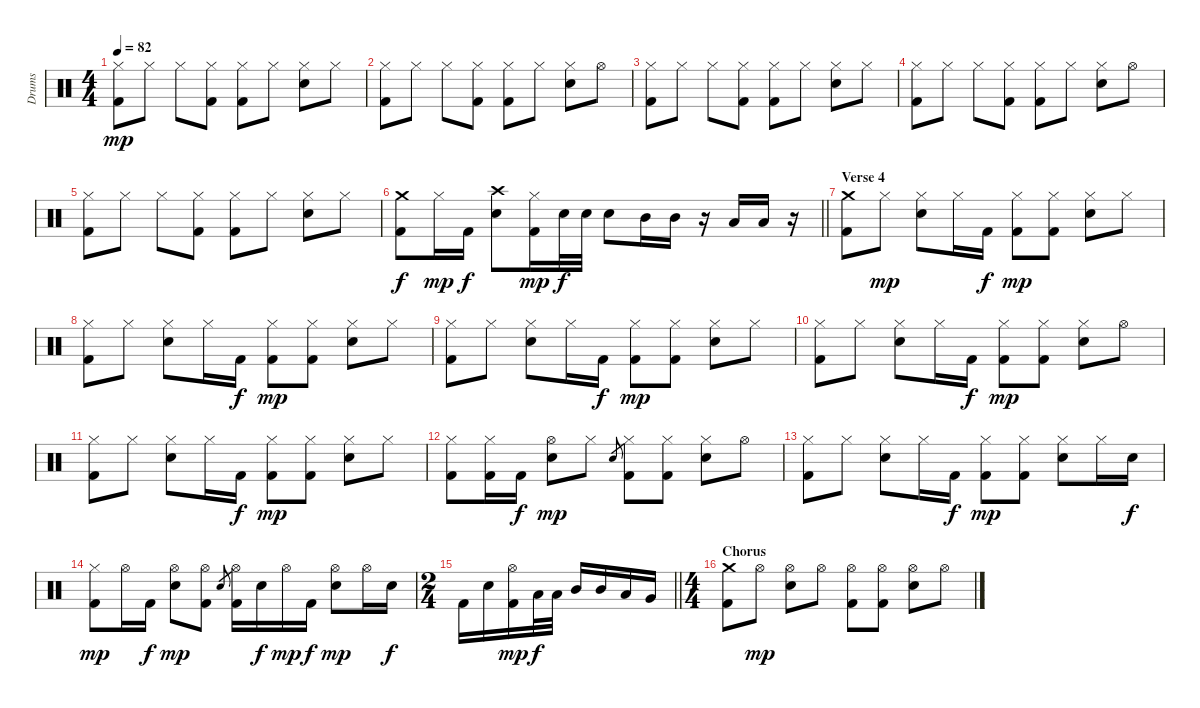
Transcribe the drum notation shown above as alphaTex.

\track ("Drums" "Drums") {instrument percussion}
\staff {score}
\articulation defaults
\ts (4 4)
\tempo 82
\clef neutral
\ks c
("Hi-Hat (closed)" "Kick (hit) 2").8{dy mp} "Hi-Hat (closed)".8 "Hi-Hat (closed)".8 ("Hi-Hat (closed)" "Kick (hit) 2").8 ("Hi-Hat (closed)" "Kick (hit) 2").8 "Hi-Hat (closed)".8 ("Hi-Hat (closed)" "Snare (hit) 2").8 "Hi-Hat (closed)".8 |
("Hi-Hat (closed)" "Kick (hit) 2").8 "Hi-Hat (closed)".8 "Hi-Hat (closed)".8 ("Hi-Hat (closed)" "Kick (hit) 2").8 ("Hi-Hat (closed)" "Kick (hit) 2").8 "Hi-Hat (closed)".8 ("Hi-Hat (closed)" "Snare (hit) 2").8 "Hi-Hat (open)".8 |
("Hi-Hat (closed)" "Kick (hit) 2").8 "Hi-Hat (closed)".8 "Hi-Hat (closed)".8 ("Hi-Hat (closed)" "Kick (hit) 2").8 ("Hi-Hat (closed)" "Kick (hit) 2").8 "Hi-Hat (closed)".8 ("Hi-Hat (closed)" "Snare (hit) 2").8 "Hi-Hat (closed)".8 |
("Hi-Hat (closed)" "Kick (hit) 2").8 "Hi-Hat (closed)".8 "Hi-Hat (closed)".8 ("Hi-Hat (closed)" "Kick (hit) 2").8 ("Hi-Hat (closed)" "Kick (hit) 2").8 "Hi-Hat (closed)".8 ("Hi-Hat (closed)" "Snare (hit) 2").8 "Hi-Hat (open)".8 |
("Hi-Hat (closed)" "Kick (hit) 2").8 "Hi-Hat (closed)".8 "Hi-Hat (closed)".8 ("Hi-Hat (closed)" "Kick (hit) 2").8 ("Hi-Hat (closed)" "Kick (hit) 2").8 "Hi-Hat (closed)".8 ("Hi-Hat (closed)" "Snare (hit) 2").8 "Hi-Hat (closed)".8 |
\barLineRight lightlight
("Crash medium (hit)" "Kick (hit) 2").8{dy f} "Hi-Hat (closed)".16{dy mp} "Kick (hit) 2".16{dy f} ("Crash high (hit)" "Snare (hit) 2").8 ("Hi-Hat (closed)" "Kick (hit) 2").16{dy mp} "Snare (hit) 2".32{dy f} "Snare (hit) 2".32 "Snare (hit) 2".8 "Mid Tom (hit)".16 "Mid Tom (hit)".16 r.16 "Low Tom (hit)".16 "Low Tom (hit)".16 r.16 |
\section ("" "Verse 4")
("Crash medium (hit)" "Kick (hit) 2").8 "Hi-Hat (closed)".8{dy mp} ("Hi-Hat (closed)" "Snare (hit) 2").8 "Hi-Hat (closed)".16 "Kick (hit) 2".16{dy f} ("Hi-Hat (closed)" "Kick (hit) 2").8{dy mp} ("Hi-Hat (closed)" "Kick (hit) 2").8 ("Hi-Hat (closed)" "Snare (hit) 2").8 "Hi-Hat (closed)".8 |
("Hi-Hat (closed)" "Kick (hit) 2").8 "Hi-Hat (closed)".8 ("Hi-Hat (closed)" "Snare (hit) 2").8 "Hi-Hat (closed)".16 "Kick (hit) 2".16{dy f} ("Hi-Hat (closed)" "Kick (hit) 2").8{dy mp} ("Hi-Hat (closed)" "Kick (hit) 2").8 ("Hi-Hat (closed)" "Snare (hit) 2").8 "Hi-Hat (closed)".8 |
("Hi-Hat (closed)" "Kick (hit) 2").8 "Hi-Hat (closed)".8 ("Hi-Hat (closed)" "Snare (hit) 2").8 "Hi-Hat (closed)".16 "Kick (hit) 2".16{dy f} ("Hi-Hat (closed)" "Kick (hit) 2").8{dy mp} ("Hi-Hat (closed)" "Kick (hit) 2").8 ("Hi-Hat (closed)" "Snare (hit) 2").8 "Hi-Hat (closed)".8 |
("Hi-Hat (closed)" "Kick (hit) 2").8 "Hi-Hat (closed)".8 ("Hi-Hat (closed)" "Snare (hit) 2").8 "Hi-Hat (closed)".16 "Kick (hit) 2".16{dy f} ("Hi-Hat (closed)" "Kick (hit) 2").8{dy mp} ("Hi-Hat (closed)" "Kick (hit) 2").8 ("Hi-Hat (closed)" "Snare (hit) 2").8 "Hi-Hat (open)".8 |
("Hi-Hat (closed)" "Kick (hit) 2").8 "Hi-Hat (closed)".8 ("Hi-Hat (closed)" "Snare (hit) 2").8 "Hi-Hat (closed)".16 "Kick (hit) 2".16{dy f} ("Hi-Hat (closed)" "Kick (hit) 2").8{dy mp} ("Hi-Hat (closed)" "Kick (hit) 2").8 ("Hi-Hat (closed)" "Snare (hit) 2").8 "Hi-Hat (closed)".8 |
("Hi-Hat (closed)" "Kick (hit) 2").8 ("Hi-Hat (closed)" "Kick (hit) 2").16 "Kick (hit) 2".16{dy f} ("Hi-Hat (open)" "Snare (hit) 2").8{dy mp} "Hi-Hat (closed)".8 "Snare (hit) 2".8{gr} ("Hi-Hat (closed)" "Kick (hit) 2").8 ("Hi-Hat (closed)" "Kick (hit) 2").8 ("Hi-Hat (closed)" "Snare (hit) 2").8 "Hi-Hat (open)".8 |
("Hi-Hat (closed)" "Kick (hit) 2").8 "Hi-Hat (closed)".8 ("Hi-Hat (closed)" "Snare (hit) 2").8 "Hi-Hat (closed)".16 "Kick (hit) 2".16{dy f} ("Hi-Hat (closed)" "Kick (hit) 2").8{dy mp} ("Hi-Hat (closed)" "Kick (hit) 2").8 ("Hi-Hat (closed)" "Snare (hit) 2").8 "Hi-Hat (closed)".16 "Snare (hit) 2".16{dy f} |
("Hi-Hat (closed)" "Kick (hit) 2").8{dy mp} "Hi-Hat (open)".16 "Kick (hit) 2".16{dy f} ("Hi-Hat (open)" "Snare (hit) 2").8{dy mp} ("Hi-Hat (open)" "Kick (hit) 2").8 "Snare (hit) 2".8{gr} ("Hi-Hat (open)" "Kick (hit) 2").16 "Snare (hit) 2".16{dy f} "Hi-Hat (open)".16{dy mp} "Kick (hit) 2".16{dy f} ("Hi-Hat (open)" "Snare (hit) 2").8{dy mp} "Hi-Hat (open)".16 "Snare (hit) 2".16{dy f} |
\ts (2 4)
\barLineRight lightlight "Kick (hit) 2".16 "Snare (hit) 2".16
("Hi-Hat (open)" "Kick (hit) 2").16{dy mp} "Low Tom (hit)".32{dy f} "Low Tom (hit)".32 "Mid Tom (hit)".16 "Mid Tom (hit)".16 "Low Tom (hit)".16 "Very Low Tom (hit)".16 |
\ts (4 4)
\section ("" "Chorus")
("Crash medium (hit)" "Kick (hit) 2").8 "Hi-Hat (open)".8{dy mp} ("Hi-Hat (open)" "Snare (hit) 2").8 "Hi-Hat (open)".8 ("Hi-Hat (open)" "Kick (hit) 2").8 ("Hi-Hat (open)" "Kick (hit) 2").8 ("Hi-Hat (open)" "Snare (hit) 2").8 "Hi-Hat (open)".8
